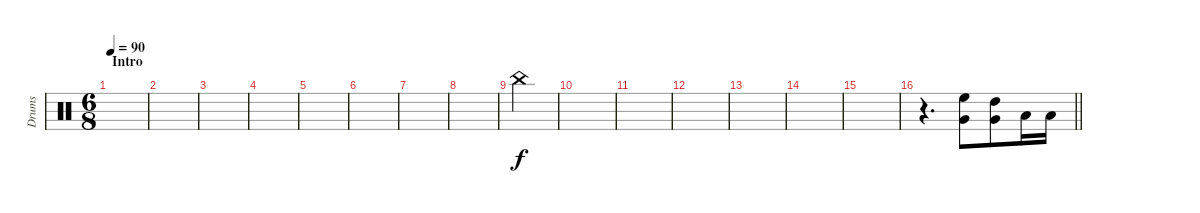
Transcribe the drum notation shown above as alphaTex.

\track ("Drums" "Drums") {instrument percussion}
\staff {score}
\articulation defaults
\ts (6 8)
\section ("" "Intro")
\tempo 90
\clef neutral
\ks c
|
|
|
|
|
|
|
|
"China (hit)".4 |
|
|
|
|
|
|
\barLineRight lightlight
r.4{d} ("High Floor Tom (hit)" "Very Low Tom (hit)").8 ("High Tom (hit)" "Very Low Tom (hit)").8 "Low Tom (hit)".16 "Low Tom (hit)".16
